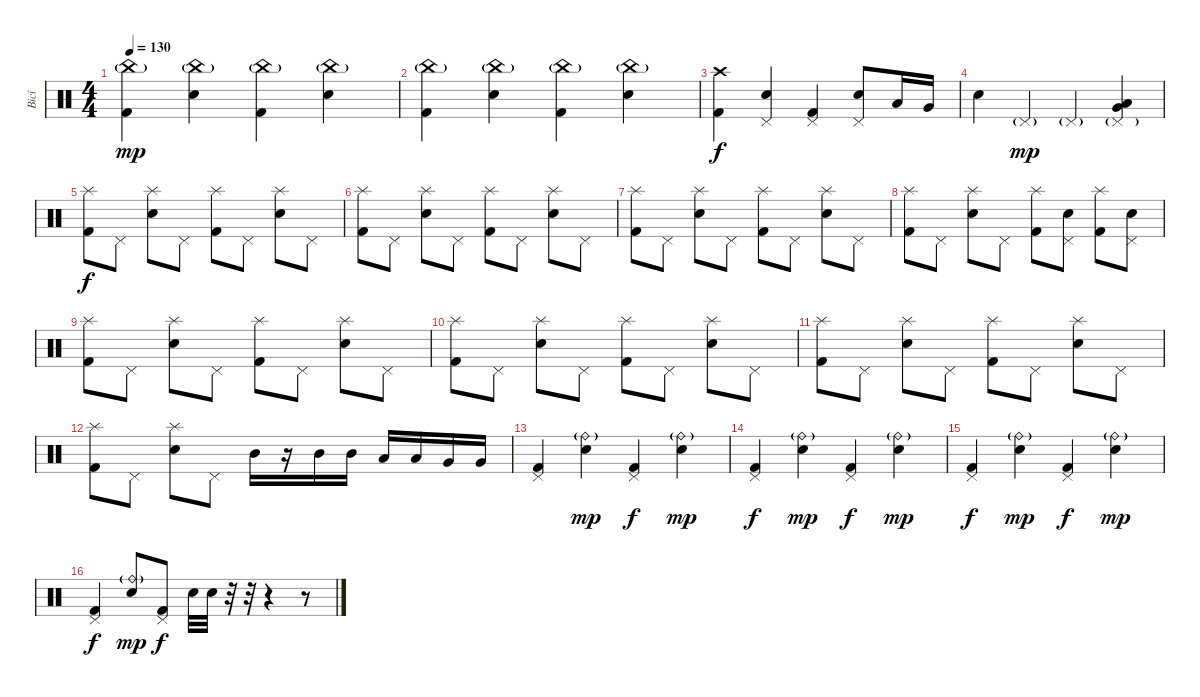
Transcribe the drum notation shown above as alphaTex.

\track ("Bicí" "Bicí") {instrument percussion}
\staff {score}
\articulation defaults
\ts (4 4)
\tempo 130
\clef neutral
\ks c
("China (hit)"{g} "Kick (hit) 2").4{dy mp} ("China (hit)"{g} "Electric Snare (hit)").4 ("China (hit)"{g} "Kick (hit) 2").4 ("China (hit)"{g} "Electric Snare (hit)").4 |
("China (hit)"{g} "Kick (hit) 2").4 ("China (hit)"{g} "Electric Snare (hit)").4 ("China (hit)"{g} "Kick (hit) 2").4 ("China (hit)"{g} "Electric Snare (hit)").4 |
("Crash high (hit)" "Kick (hit) 2").4{dy f} ("Pedal Hi-Hat (hit)" "Electric Snare (hit)").4 ("Pedal Hi-Hat (hit)" "Kick (hit) 2").4 ("Pedal Hi-Hat (hit)" "Electric Snare (hit)").8 "Low Tom (hit)".16 "Very Low Tom (hit)".16 |
"Electric Snare (hit)".4 "Pedal Hi-Hat (hit)"{g}.4{dy mp} "Pedal Hi-Hat (hit)"{g}.4 ("Pedal Hi-Hat (hit)"{g} "Low Tom (hit)" "Very Low Tom (hit)").4{bu 60} |
("Splash (hit)" "Kick (hit) 2").8{dy f} "Pedal Hi-Hat (hit)".8 ("Splash (hit)" "Electric Snare (hit)").8 "Pedal Hi-Hat (hit)".8 ("Splash (hit)" "Kick (hit) 2").8 "Pedal Hi-Hat (hit)".8 ("Splash (hit)" "Electric Snare (hit)").8 "Pedal Hi-Hat (hit)".8 |
("Splash (hit)" "Kick (hit) 2").8 "Pedal Hi-Hat (hit)".8 ("Splash (hit)" "Electric Snare (hit)").8 "Pedal Hi-Hat (hit)".8 ("Splash (hit)" "Kick (hit) 2").8 "Pedal Hi-Hat (hit)".8 ("Splash (hit)" "Electric Snare (hit)").8 "Pedal Hi-Hat (hit)".8 |
("Splash (hit)" "Kick (hit) 2").8 "Pedal Hi-Hat (hit)".8 ("Splash (hit)" "Electric Snare (hit)").8 "Pedal Hi-Hat (hit)".8 ("Splash (hit)" "Kick (hit) 2").8 "Pedal Hi-Hat (hit)".8 ("Splash (hit)" "Electric Snare (hit)").8 "Pedal Hi-Hat (hit)".8 |
("Splash (hit)" "Kick (hit) 2").8 "Pedal Hi-Hat (hit)".8 ("Splash (hit)" "Electric Snare (hit)").8 "Pedal Hi-Hat (hit)".8 ("Splash (hit)" "Kick (hit) 2").8 ("Pedal Hi-Hat (hit)" "Electric Snare (hit)").8 ("Splash (hit)" "Kick (hit) 2").8 ("Pedal Hi-Hat (hit)" "Electric Snare (hit)").8 |
("Splash (hit)" "Kick (hit) 2").8 "Pedal Hi-Hat (hit)".8 ("Splash (hit)" "Electric Snare (hit)").8 "Pedal Hi-Hat (hit)".8 ("Splash (hit)" "Kick (hit) 2").8 "Pedal Hi-Hat (hit)".8 ("Splash (hit)" "Electric Snare (hit)").8 "Pedal Hi-Hat (hit)".8 |
("Splash (hit)" "Kick (hit) 2").8 "Pedal Hi-Hat (hit)".8 ("Splash (hit)" "Electric Snare (hit)").8 "Pedal Hi-Hat (hit)".8 ("Splash (hit)" "Kick (hit) 2").8 "Pedal Hi-Hat (hit)".8 ("Splash (hit)" "Electric Snare (hit)").8 "Pedal Hi-Hat (hit)".8 |
("Splash (hit)" "Kick (hit) 2").8 "Pedal Hi-Hat (hit)".8 ("Splash (hit)" "Electric Snare (hit)").8 "Pedal Hi-Hat (hit)".8 ("Splash (hit)" "Kick (hit) 2").8 "Pedal Hi-Hat (hit)".8 ("Splash (hit)" "Electric Snare (hit)").8 "Pedal Hi-Hat (hit)".8 |
("Splash (hit)" "Kick (hit) 2").8 "Pedal Hi-Hat (hit)".8 ("Splash (hit)" "Electric Snare (hit)").8 "Pedal Hi-Hat (hit)".8 "Mid Tom (hit)".16 r.16 "Mid Tom (hit)".16 "Mid Tom (hit)".16 "Low Tom (hit)".16 "Low Tom (hit)".16 "Very Low Tom (hit)".16 "Very Low Tom (hit)".16 |
("Pedal Hi-Hat (hit)" "Kick (hit) 2").4 ("Ride (bell)"{g} "Electric Snare (hit)").4{dy mp} ("Pedal Hi-Hat (hit)" "Kick (hit) 2").4{dy f} ("Ride (bell)"{g} "Electric Snare (hit)").4{dy mp} |
("Pedal Hi-Hat (hit)" "Kick (hit) 2").4{dy f} ("Ride (bell)"{g} "Electric Snare (hit)").4{dy mp} ("Pedal Hi-Hat (hit)" "Kick (hit) 2").4{dy f} ("Ride (bell)"{g} "Electric Snare (hit)").4{dy mp} |
("Pedal Hi-Hat (hit)" "Kick (hit) 2").4{dy f} ("Ride (bell)"{g} "Electric Snare (hit)").4{dy mp} ("Pedal Hi-Hat (hit)" "Kick (hit) 2").4{dy f} ("Ride (bell)"{g} "Electric Snare (hit)").4{dy mp} |
("Pedal Hi-Hat (hit)" "Kick (hit) 2").4{dy f} ("Ride (bell)"{g} "Electric Snare (hit)").8{dy mp} ("Pedal Hi-Hat (hit)" "Kick (hit) 2").8{dy f} "Electric Snare (hit)".32 "Electric Snare (hit)".32 r.32 r.32 r.4 r.8
